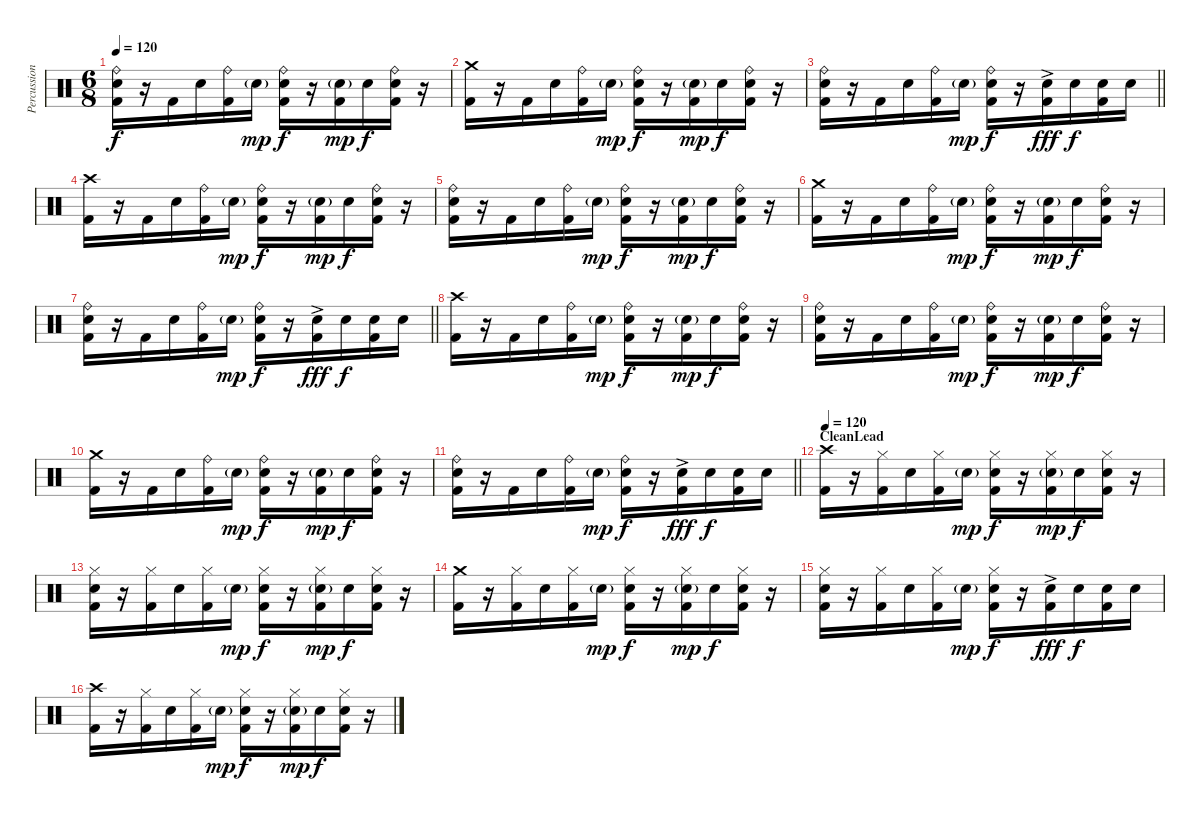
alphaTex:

\track ("Percussion" "Percussion") {instrument percussion}
\staff {score}
\articulation defaults
\ts (6 8)
\tempo 120
\clef neutral
\ks c
("Ride (bell)" "Snare (hit) 2" "Kick (hit) 2").16{dy f} r.16 "Kick (hit) 2".16 "Snare (hit) 2".16 ("Ride (bell)" "Kick (hit) 2").16 "Snare (hit) 2"{g}.16{dy mp} ("Ride (bell)" "Snare (hit) 2" "Kick (hit) 2").16{dy f} r.16 ("Snare (hit) 2"{g} "Kick (hit) 2").16{dy mp} "Snare (hit) 2".16{dy f} ("Ride (bell)" "Snare (hit) 2" "Kick (hit) 2").16 r.16 |
("Crash medium (hit)" "Kick (hit) 2").16 r.16 "Kick (hit) 2".16 "Snare (hit) 2".16 ("Ride (bell)" "Kick (hit) 2").16 "Snare (hit) 2"{g}.16{dy mp} ("Ride (bell)" "Snare (hit) 2" "Kick (hit) 2").16{dy f} r.16 ("Snare (hit) 2"{g} "Kick (hit) 2").16{dy mp} "Snare (hit) 2".16{dy f} ("Ride (bell)" "Snare (hit) 2" "Kick (hit) 2").16 r.16 |
\barLineRight lightlight
("Ride (bell)" "Snare (hit) 2" "Kick (hit) 2").16 r.16 "Kick (hit) 2".16 "Snare (hit) 2".16 ("Ride (bell)" "Kick (hit) 2").16 "Snare (hit) 2"{g}.16{dy mp} ("Ride (bell)" "Snare (hit) 2" "Kick (hit) 2").16{dy f} r.16 ("Snare (hit) 2"{ac} "Kick (hit) 2").16{dy fff} "Snare (hit) 2".16{dy f} ("Snare (hit) 2" "Kick (hit) 2").16 "Snare (hit) 2".16 |
("Crash high (hit)" "Kick (hit) 2").16 r.16 "Kick (hit) 2".16 "Snare (hit) 2".16 ("Ride (bell)" "Kick (hit) 2").16 "Snare (hit) 2"{g}.16{dy mp} ("Ride (bell)" "Snare (hit) 2" "Kick (hit) 2").16{dy f} r.16 ("Snare (hit) 2"{g} "Kick (hit) 2").16{dy mp} "Snare (hit) 2".16{dy f} ("Ride (bell)" "Snare (hit) 2" "Kick (hit) 2").16 r.16 |
("Ride (bell)" "Snare (hit) 2" "Kick (hit) 2").16 r.16 "Kick (hit) 2".16 "Snare (hit) 2".16 ("Ride (bell)" "Kick (hit) 2").16 "Snare (hit) 2"{g}.16{dy mp} ("Ride (bell)" "Snare (hit) 2" "Kick (hit) 2").16{dy f} r.16 ("Snare (hit) 2"{g} "Kick (hit) 2").16{dy mp} "Snare (hit) 2".16{dy f} ("Ride (bell)" "Snare (hit) 2" "Kick (hit) 2").16 r.16 |
("Crash medium (hit)" "Kick (hit) 2").16 r.16 "Kick (hit) 2".16 "Snare (hit) 2".16 ("Ride (bell)" "Kick (hit) 2").16 "Snare (hit) 2"{g}.16{dy mp} ("Ride (bell)" "Snare (hit) 2" "Kick (hit) 2").16{dy f} r.16 ("Snare (hit) 2"{g} "Kick (hit) 2").16{dy mp} "Snare (hit) 2".16{dy f} ("Ride (bell)" "Snare (hit) 2" "Kick (hit) 2").16 r.16 |
\barLineRight lightlight
("Ride (bell)" "Snare (hit) 2" "Kick (hit) 2").16 r.16 "Kick (hit) 2".16 "Snare (hit) 2".16 ("Ride (bell)" "Kick (hit) 2").16 "Snare (hit) 2"{g}.16{dy mp} ("Ride (bell)" "Snare (hit) 2" "Kick (hit) 2").16{dy f} r.16 ("Snare (hit) 2"{ac} "Kick (hit) 2").16{dy fff} "Snare (hit) 2".16{dy f} ("Snare (hit) 2" "Kick (hit) 2").16 "Snare (hit) 2".16 |
("Crash high (hit)" "Kick (hit) 2").16 r.16 "Kick (hit) 2".16 "Snare (hit) 2".16 ("Ride (bell)" "Kick (hit) 2").16 "Snare (hit) 2"{g}.16{dy mp} ("Ride (bell)" "Snare (hit) 2" "Kick (hit) 2").16{dy f} r.16 ("Snare (hit) 2"{g} "Kick (hit) 2").16{dy mp} "Snare (hit) 2".16{dy f} ("Ride (bell)" "Snare (hit) 2" "Kick (hit) 2").16 r.16 |
("Ride (bell)" "Snare (hit) 2" "Kick (hit) 2").16 r.16 "Kick (hit) 2".16 "Snare (hit) 2".16 ("Ride (bell)" "Kick (hit) 2").16 "Snare (hit) 2"{g}.16{dy mp} ("Ride (bell)" "Snare (hit) 2" "Kick (hit) 2").16{dy f} r.16 ("Snare (hit) 2"{g} "Kick (hit) 2").16{dy mp} "Snare (hit) 2".16{dy f} ("Ride (bell)" "Snare (hit) 2" "Kick (hit) 2").16 r.16 |
("Crash medium (hit)" "Kick (hit) 2").16 r.16 "Kick (hit) 2".16 "Snare (hit) 2".16 ("Ride (bell)" "Kick (hit) 2").16 "Snare (hit) 2"{g}.16{dy mp} ("Ride (bell)" "Snare (hit) 2" "Kick (hit) 2").16{dy f} r.16 ("Snare (hit) 2"{g} "Kick (hit) 2").16{dy mp} "Snare (hit) 2".16{dy f} ("Ride (bell)" "Snare (hit) 2" "Kick (hit) 2").16 r.16 |
\barLineRight lightlight
("Ride (bell)" "Snare (hit) 2" "Kick (hit) 2").16 r.16 "Kick (hit) 2".16 "Snare (hit) 2".16 ("Ride (bell)" "Kick (hit) 2").16 "Snare (hit) 2"{g}.16{dy mp} ("Ride (bell)" "Snare (hit) 2" "Kick (hit) 2").16{dy f} r.16 ("Snare (hit) 2"{ac} "Kick (hit) 2").16{dy fff} "Snare (hit) 2".16{dy f} ("Snare (hit) 2" "Kick (hit) 2").16 "Snare (hit) 2".16 |
\section ("" "CleanLead")
\tempo 120
("Crash high (hit)" "Kick (hit) 2").16 r.16 ("Hi-Hat (closed)" "Kick (hit) 2").16 "Snare (hit) 2".16 ("Hi-Hat (closed)" "Kick (hit) 2").16 "Snare (hit) 2"{g}.16{dy mp} ("Hi-Hat (closed)" "Snare (hit) 2" "Kick (hit) 2").16{dy f} r.16 ("Hi-Hat (closed)" "Snare (hit) 2"{g} "Kick (hit) 2").16{dy mp} "Snare (hit) 2".16{dy f} ("Hi-Hat (closed)" "Snare (hit) 2" "Kick (hit) 2").16 r.16 |
("Hi-Hat (closed)" "Snare (hit) 2" "Kick (hit) 2").16 r.16 ("Hi-Hat (closed)" "Kick (hit) 2").16 "Snare (hit) 2".16 ("Hi-Hat (closed)" "Kick (hit) 2").16 "Snare (hit) 2"{g}.16{dy mp} ("Hi-Hat (closed)" "Snare (hit) 2" "Kick (hit) 2").16{dy f} r.16 ("Hi-Hat (closed)" "Snare (hit) 2"{g} "Kick (hit) 2").16{dy mp} "Snare (hit) 2".16{dy f} ("Hi-Hat (closed)" "Snare (hit) 2" "Kick (hit) 2").16 r.16 |
("Crash medium (hit)" "Kick (hit) 2").16 r.16 ("Hi-Hat (closed)" "Kick (hit) 2").16 "Snare (hit) 2".16 ("Hi-Hat (closed)" "Kick (hit) 2").16 "Snare (hit) 2"{g}.16{dy mp} ("Hi-Hat (closed)" "Snare (hit) 2" "Kick (hit) 2").16{dy f} r.16 ("Hi-Hat (closed)" "Snare (hit) 2"{g} "Kick (hit) 2").16{dy mp} "Snare (hit) 2".16{dy f} ("Hi-Hat (closed)" "Snare (hit) 2" "Kick (hit) 2").16 r.16 |
("Hi-Hat (closed)" "Snare (hit) 2" "Kick (hit) 2").16 r.16 ("Hi-Hat (closed)" "Kick (hit) 2").16 "Snare (hit) 2".16 ("Hi-Hat (closed)" "Kick (hit) 2").16 "Snare (hit) 2"{g}.16{dy mp} ("Hi-Hat (closed)" "Snare (hit) 2" "Kick (hit) 2").16{dy f} r.16 ("Snare (hit) 2"{ac} "Kick (hit) 2").16{dy fff} "Snare (hit) 2".16{dy f} ("Snare (hit) 2" "Kick (hit) 2").16 "Snare (hit) 2".16 |
("Crash high (hit)" "Kick (hit) 2").16 r.16 ("Hi-Hat (closed)" "Kick (hit) 2").16 "Snare (hit) 2".16 ("Hi-Hat (closed)" "Kick (hit) 2").16 "Snare (hit) 2"{g}.16{dy mp} ("Hi-Hat (closed)" "Snare (hit) 2" "Kick (hit) 2").16{dy f} r.16 ("Hi-Hat (closed)" "Snare (hit) 2"{g} "Kick (hit) 2").16{dy mp} "Snare (hit) 2".16{dy f} ("Hi-Hat (closed)" "Snare (hit) 2" "Kick (hit) 2").16 r.16
